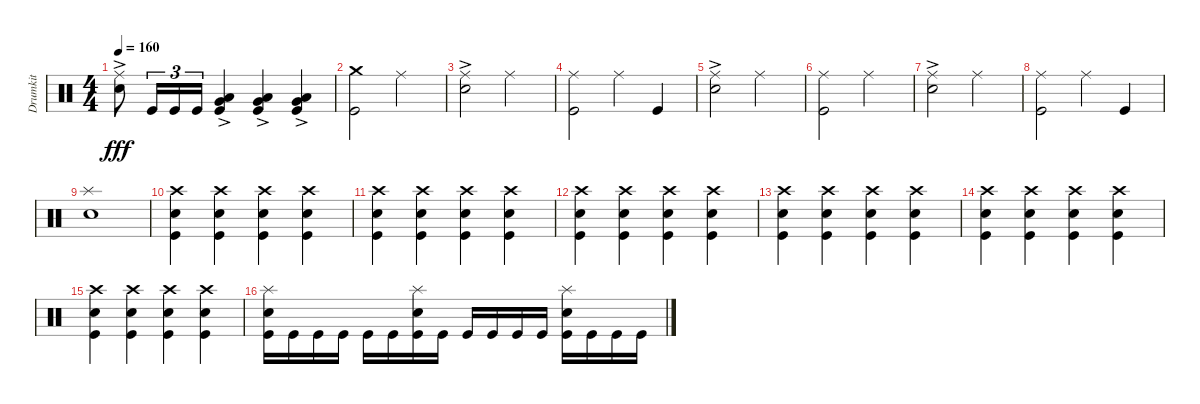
\track ("Drumkit" "Drumkit") {instrument percussion}
\staff {score}
\articulation defaults
\ts (4 4)
\tempo 160
\clef neutral
\ks c
("Snare (hit) 2"{ac} "Ride (middle)").8{dy fff} "Kick (hit)".16{tu (3 2)} "Kick (hit)".16{tu (3 2)} "Kick (hit)".16{tu (3 2)} ("Very Low Tom (hit)"{ac} "Low Tom (hit)"{ac} "Kick (hit)").4 ("Low Floor Tom (hit)"{ac} "Very Low Tom (hit)"{ac} "Kick (hit)").4 ("Low Floor Tom (hit)"{ac} "Very Low Tom (hit)"{ac} "Kick (hit)").4 |
\section ("" "")
("Kick (hit)" "Crash medium (hit)").2 "Ride (middle)".2 |
("Ride (middle)" "Snare (hit) 2"{ac}).2 "Ride (middle)".2 |
("Kick (hit)" "Ride (middle)").2 "Ride (middle)".4 "Kick (hit)".4 |
("Snare (hit) 2"{ac} "Ride (middle)").2 "Ride (middle)".2 |
("Kick (hit)" "Ride (middle)").2 "Ride (middle)".2 |
("Ride (middle)" "Snare (hit) 2"{ac}).2 "Ride (middle)".2 |
("Kick (hit)" "Ride (middle)").2 "Ride (middle)".4 "Kick (hit)".4 |
("Snare (hit) 2" "Splash (hit)").1 |
\section ("" "")
("Kick (hit)" "Snare (hit) 2" "Crash high (hit)").4 ("Kick (hit)" "Snare (hit) 2" "Crash high (hit)").4 ("Kick (hit)" "Snare (hit) 2" "Crash high (hit)").4 ("Kick (hit)" "Snare (hit) 2" "Crash high (hit)").4 |
("Kick (hit)" "Snare (hit) 2" "Crash high (hit)").4 ("Kick (hit)" "Snare (hit) 2" "Crash high (hit)").4 ("Kick (hit)" "Snare (hit) 2" "Crash high (hit)").4 ("Kick (hit)" "Snare (hit) 2" "Crash high (hit)").4 |
("Kick (hit)" "Snare (hit) 2" "Crash high (hit)").4 ("Kick (hit)" "Snare (hit) 2" "Crash high (hit)").4 ("Kick (hit)" "Snare (hit) 2" "Crash high (hit)").4 ("Kick (hit)" "Snare (hit) 2" "Crash high (hit)").4 |
("Kick (hit)" "Snare (hit) 2" "Crash high (hit)").4 ("Kick (hit)" "Snare (hit) 2" "Crash high (hit)").4 ("Kick (hit)" "Snare (hit) 2" "Crash high (hit)").4 ("Kick (hit)" "Snare (hit) 2" "Crash high (hit)").4 |
("Kick (hit)" "Snare (hit) 2" "Crash high (hit)").4 ("Kick (hit)" "Snare (hit) 2" "Crash high (hit)").4 ("Kick (hit)" "Snare (hit) 2" "Crash high (hit)").4 ("Kick (hit)" "Snare (hit) 2" "Crash high (hit)").4 |
("Kick (hit)" "Snare (hit) 2" "Crash high (hit)").4 ("Kick (hit)" "Snare (hit) 2" "Crash high (hit)").4 ("Kick (hit)" "Snare (hit) 2" "Crash high (hit)").4 ("Kick (hit)" "Snare (hit) 2" "Crash high (hit)").4 |
("Kick (hit)" "Splash (hit)" "Snare (hit) 2").16 "Kick (hit)".16 "Kick (hit)".16 "Kick (hit)".16 "Kick (hit)".16 "Kick (hit)".16 ("Kick (hit)" "Splash (hit)" "Snare (hit) 2").16 "Kick (hit)".16 "Kick (hit)".16 "Kick (hit)".16 "Kick (hit)".16 "Kick (hit)".16 ("Kick (hit)" "Splash (hit)" "Snare (hit) 2").16 "Kick (hit)".16 "Kick (hit)".16 "Kick (hit)".16
